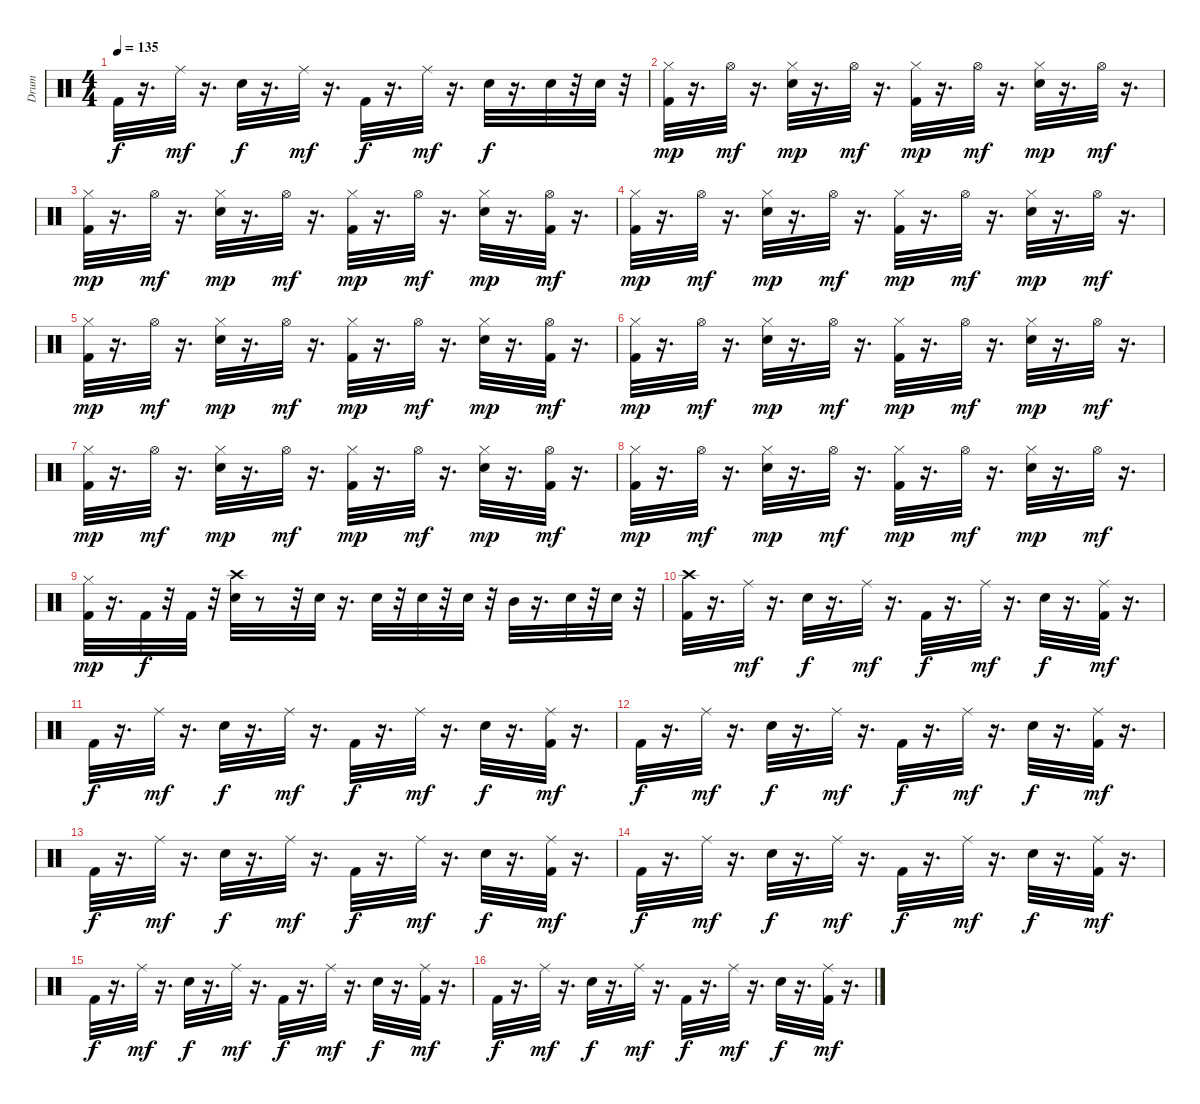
\track ("Drum" "Drum") {instrument percussion}
\staff {score}
\articulation defaults
\ts (4 4)
\tempo 135
\clef neutral
\ks c "Kick (hit) 2".32{dy f}
r.16{d} "Ride (middle)".32{dy mf} r.16{d} "Electric Snare (hit)".32{dy f} r.16{d} "Ride (middle)".32{dy mf} r.16{d} "Kick (hit) 2".32{dy f} r.16{d} "Ride (middle)".32{dy mf} r.16{d} "Electric Snare (hit)".32{dy f} r.16{d} "Electric Snare (hit)".32 r.32 "Electric Snare (hit)".32 r.32 |
("Hi-Hat (closed)" "Kick (hit) 2").32{dy mp} r.16{d} "Hi-Hat (open)".32{dy mf} r.16{d} ("Hi-Hat (closed)" "Electric Snare (hit)").32{dy mp} r.16{d} "Hi-Hat (open)".32{dy mf} r.16{d} ("Hi-Hat (closed)" "Kick (hit) 2").32{dy mp} r.16{d} "Hi-Hat (open)".32{dy mf} r.16{d} ("Hi-Hat (closed)" "Electric Snare (hit)").32{dy mp} r.16{d} "Hi-Hat (open)".32{dy mf} r.16{d} |
("Hi-Hat (closed)" "Kick (hit) 2").32{dy mp} r.16{d} "Hi-Hat (open)".32{dy mf} r.16{d} ("Hi-Hat (closed)" "Electric Snare (hit)").32{dy mp} r.16{d} "Hi-Hat (open)".32{dy mf} r.16{d} ("Hi-Hat (closed)" "Kick (hit) 2").32{dy mp} r.16{d} "Hi-Hat (open)".32{dy mf} r.16{d} ("Hi-Hat (closed)" "Electric Snare (hit)").32{dy mp} r.16{d} ("Hi-Hat (open)" "Kick (hit) 2").32{dy mf} r.16{d} |
("Hi-Hat (closed)" "Kick (hit) 2").32{dy mp} r.16{d} "Hi-Hat (open)".32{dy mf} r.16{d} ("Hi-Hat (closed)" "Electric Snare (hit)").32{dy mp} r.16{d} "Hi-Hat (open)".32{dy mf} r.16{d} ("Hi-Hat (closed)" "Kick (hit) 2").32{dy mp} r.16{d} "Hi-Hat (open)".32{dy mf} r.16{d} ("Hi-Hat (closed)" "Electric Snare (hit)").32{dy mp} r.16{d} "Hi-Hat (open)".32{dy mf} r.16{d} |
("Hi-Hat (closed)" "Kick (hit) 2").32{dy mp} r.16{d} "Hi-Hat (open)".32{dy mf} r.16{d} ("Hi-Hat (closed)" "Electric Snare (hit)").32{dy mp} r.16{d} "Hi-Hat (open)".32{dy mf} r.16{d} ("Hi-Hat (closed)" "Kick (hit) 2").32{dy mp} r.16{d} "Hi-Hat (open)".32{dy mf} r.16{d} ("Hi-Hat (closed)" "Electric Snare (hit)").32{dy mp} r.16{d} ("Hi-Hat (open)" "Kick (hit) 2").32{dy mf} r.16{d} |
("Hi-Hat (closed)" "Kick (hit) 2").32{dy mp} r.16{d} "Hi-Hat (open)".32{dy mf} r.16{d} ("Hi-Hat (closed)" "Electric Snare (hit)").32{dy mp} r.16{d} "Hi-Hat (open)".32{dy mf} r.16{d} ("Hi-Hat (closed)" "Kick (hit) 2").32{dy mp} r.16{d} "Hi-Hat (open)".32{dy mf} r.16{d} ("Hi-Hat (closed)" "Electric Snare (hit)").32{dy mp} r.16{d} "Hi-Hat (open)".32{dy mf} r.16{d} |
("Hi-Hat (closed)" "Kick (hit) 2").32{dy mp} r.16{d} "Hi-Hat (open)".32{dy mf} r.16{d} ("Hi-Hat (closed)" "Electric Snare (hit)").32{dy mp} r.16{d} "Hi-Hat (open)".32{dy mf} r.16{d} ("Hi-Hat (closed)" "Kick (hit) 2").32{dy mp} r.16{d} "Hi-Hat (open)".32{dy mf} r.16{d} ("Hi-Hat (closed)" "Electric Snare (hit)").32{dy mp} r.16{d} ("Hi-Hat (open)" "Kick (hit) 2").32{dy mf} r.16{d} |
("Hi-Hat (closed)" "Kick (hit) 2").32{dy mp} r.16{d} "Hi-Hat (open)".32{dy mf} r.16{d} ("Hi-Hat (closed)" "Electric Snare (hit)").32{dy mp} r.16{d} "Hi-Hat (open)".32{dy mf} r.16{d} ("Hi-Hat (closed)" "Kick (hit) 2").32{dy mp} r.16{d} "Hi-Hat (open)".32{dy mf} r.16{d} ("Hi-Hat (closed)" "Electric Snare (hit)").32{dy mp} r.16{d} "Hi-Hat (open)".32{dy mf} r.16{d} |
("Hi-Hat (closed)" "Kick (hit) 2").32{dy mp} r.16{d} "Kick (hit) 2".32{dy f} r.32 "Kick (hit) 2".32 r.32 ("Electric Snare (hit)" "Crash high (hit)").32 r.8 r.32 "Electric Snare (hit)".32 r.16{d} "Electric Snare (hit)".32 r.32 "Electric Snare (hit)".32 r.32 "Electric Snare (hit)".32 r.32 "Mid Tom (hit)".32 r.16{d} "Electric Snare (hit)".32 r.32 "Electric Snare (hit)".32 r.32 |
("Crash high (hit)" "Kick (hit) 2").32 r.16{d} "Ride (middle)".32{dy mf} r.16{d} "Electric Snare (hit)".32{dy f} r.16{d} "Ride (middle)".32{dy mf} r.16{d} "Kick (hit) 2".32{dy f} r.16{d} "Ride (middle)".32{dy mf} r.16{d} "Electric Snare (hit)".32{dy f} r.16{d} ("Ride (middle)" "Kick (hit) 2").32{dy mf} r.16{d} |
"Kick (hit) 2".32{dy f} r.16{d} "Ride (middle)".32{dy mf} r.16{d} "Electric Snare (hit)".32{dy f} r.16{d} "Ride (middle)".32{dy mf} r.16{d} "Kick (hit) 2".32{dy f} r.16{d} "Ride (middle)".32{dy mf} r.16{d} "Electric Snare (hit)".32{dy f} r.16{d} ("Ride (middle)" "Kick (hit) 2").32{dy mf} r.16{d} |
"Kick (hit) 2".32{dy f} r.16{d} "Ride (middle)".32{dy mf} r.16{d} "Electric Snare (hit)".32{dy f} r.16{d} "Ride (middle)".32{dy mf} r.16{d} "Kick (hit) 2".32{dy f} r.16{d} "Ride (middle)".32{dy mf} r.16{d} "Electric Snare (hit)".32{dy f} r.16{d} ("Ride (middle)" "Kick (hit) 2").32{dy mf} r.16{d} |
"Kick (hit) 2".32{dy f} r.16{d} "Ride (middle)".32{dy mf} r.16{d} "Electric Snare (hit)".32{dy f} r.16{d} "Ride (middle)".32{dy mf} r.16{d} "Kick (hit) 2".32{dy f} r.16{d} "Ride (middle)".32{dy mf} r.16{d} "Electric Snare (hit)".32{dy f} r.16{d} ("Ride (middle)" "Kick (hit) 2").32{dy mf} r.16{d} |
"Kick (hit) 2".32{dy f} r.16{d} "Ride (middle)".32{dy mf} r.16{d} "Electric Snare (hit)".32{dy f} r.16{d} "Ride (middle)".32{dy mf} r.16{d} "Kick (hit) 2".32{dy f} r.16{d} "Ride (middle)".32{dy mf} r.16{d} "Electric Snare (hit)".32{dy f} r.16{d} ("Ride (middle)" "Kick (hit) 2").32{dy mf} r.16{d} |
"Kick (hit) 2".32{dy f} r.16{d} "Ride (middle)".32{dy mf} r.16{d} "Electric Snare (hit)".32{dy f} r.16{d} "Ride (middle)".32{dy mf} r.16{d} "Kick (hit) 2".32{dy f} r.16{d} "Ride (middle)".32{dy mf} r.16{d} "Electric Snare (hit)".32{dy f} r.16{d} ("Ride (middle)" "Kick (hit) 2").32{dy mf} r.16{d} |
"Kick (hit) 2".32{dy f} r.16{d} "Ride (middle)".32{dy mf} r.16{d} "Electric Snare (hit)".32{dy f} r.16{d} "Ride (middle)".32{dy mf} r.16{d} "Kick (hit) 2".32{dy f} r.16{d} "Ride (middle)".32{dy mf} r.16{d} "Electric Snare (hit)".32{dy f} r.16{d} ("Ride (middle)" "Kick (hit) 2").32{dy mf} r.16{d}
